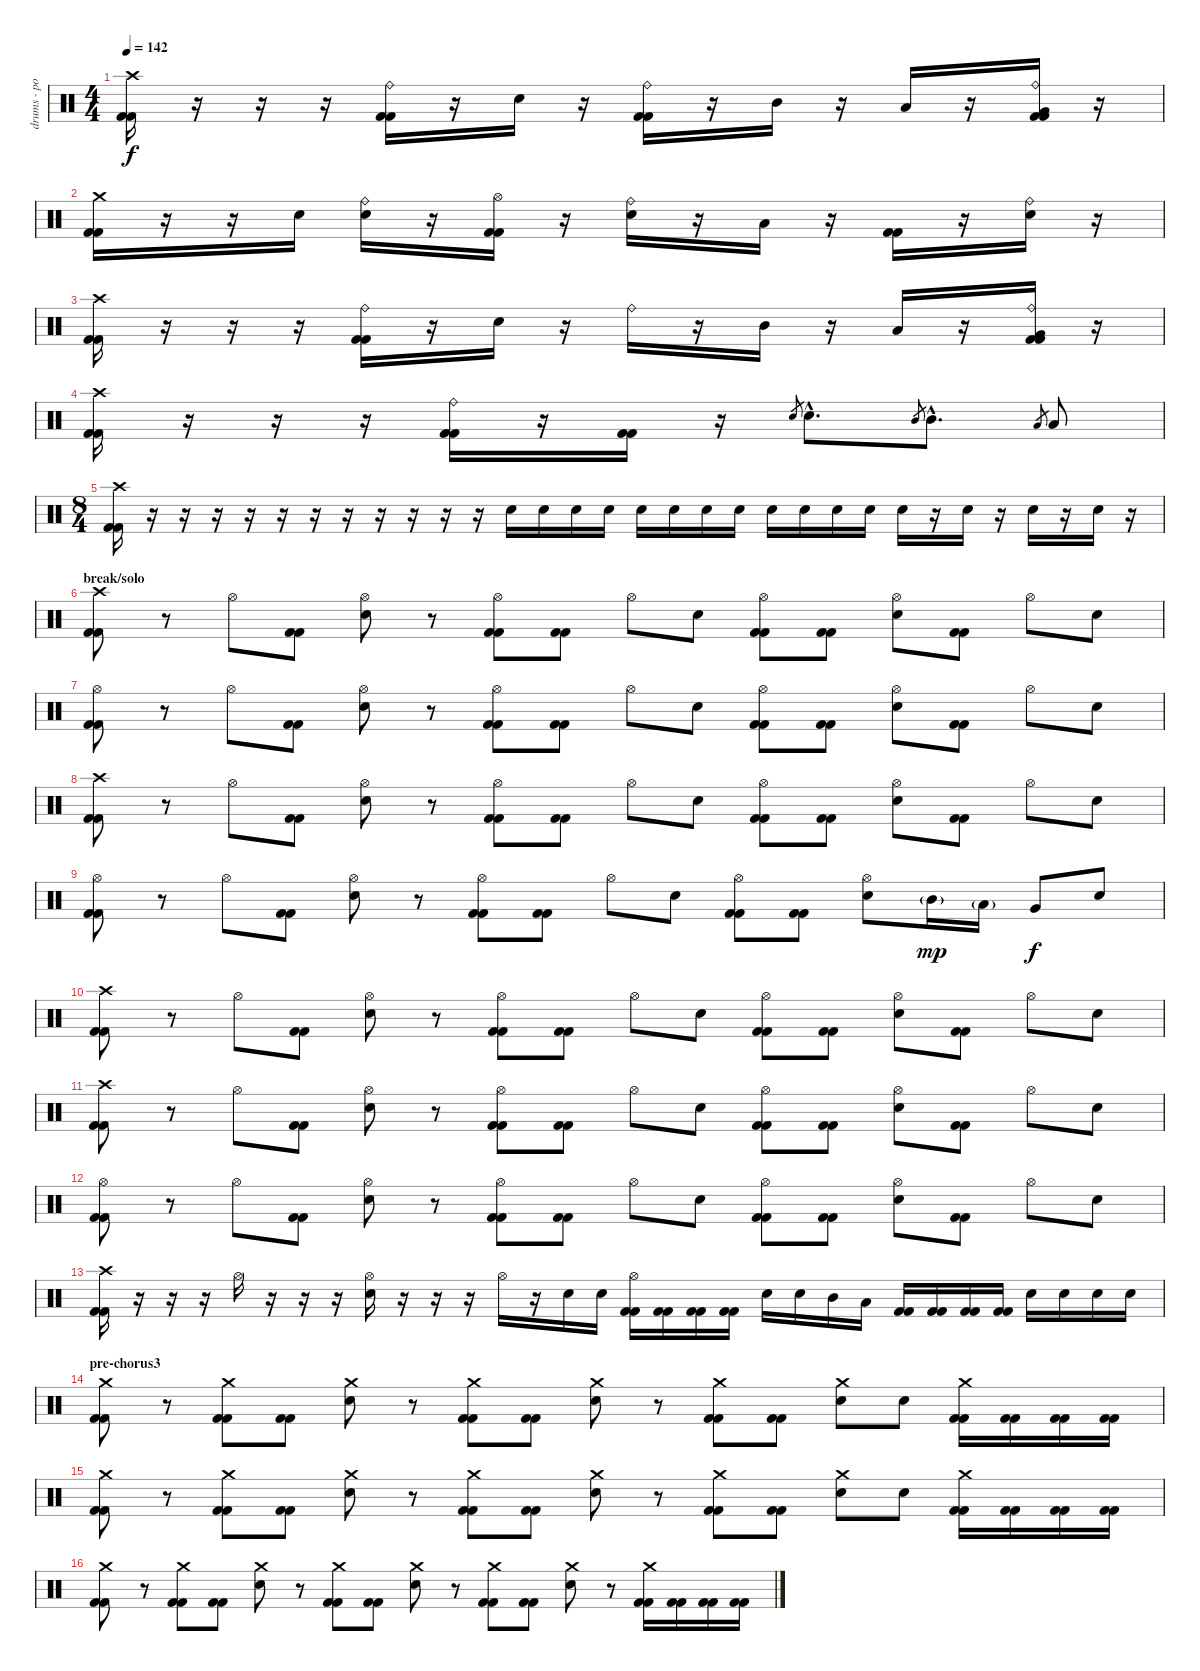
\track ("drums - portnoy" "drums - po") {instrument percussion}
\staff {score}
\articulation defaults
\ts (4 4)
\tempo 142
\clef neutral
\ks c
("Crash high (hit)" "Kick (hit) 2" "Kick (hit) 2").16{dy f} r.16 r.16 r.16 ("Ride (bell)" "Kick (hit) 2" "Kick (hit) 2").16 r.16 "Electric Snare (hit)".16 r.16 ("Ride (bell)" "Kick (hit) 2" "Kick (hit) 2").16 r.16 "Mid Tom (hit)".16 r.16 "Low Tom (hit)".16 r.16 ("Ride (bell)" "Very Low Tom (hit)" "Kick (hit) 2" "Kick (hit) 2").16 r.16 |
("Crash medium (hit)" "Kick (hit) 2" "Kick (hit) 2").16 r.16 r.16 "Electric Snare (hit)".16 ("Ride (bell)" "Electric Snare (hit)").16 r.16 ("Hi-Hat (open)" "Kick (hit) 2" "Kick (hit) 2").16 r.16 ("Ride (bell)" "Electric Snare (hit)").16 r.16 "Low Tom (hit)".16 r.16 ("Kick (hit) 2" "Kick (hit) 2").16 r.16 ("Ride (bell)" "Electric Snare (hit)").16 r.16 |
("Crash high (hit)" "Kick (hit) 2" "Kick (hit) 2").16 r.16 r.16 r.16 ("Ride (bell)" "Kick (hit) 2" "Kick (hit) 2").16 r.16 "Electric Snare (hit)".16 r.16 "Ride (bell)".16 r.16 "Mid Tom (hit)".16 r.16 "Low Tom (hit)".16 r.16 ("Ride (bell)" "Very Low Tom (hit)" "Kick (hit) 2" "Kick (hit) 2").16 r.16 |
("Crash high (hit)" "Kick (hit) 2" "Kick (hit) 2").16 r.16 r.16 r.16 ("Ride (bell)" "Kick (hit) 2" "Kick (hit) 2").16 r.16 ("Kick (hit) 2" "Kick (hit) 2").16 r.16 "Electric Snare (hit)".8{gr} "Electric Snare (hit)"{hac}.8{d} "Mid Tom (hit)".8{gr} "Mid Tom (hit)"{hac}.8{d} "Low Tom (hit)".8{gr} "Low Tom (hit)".8 |
\ts (8 4)
("Crash high (hit)" "Kick (hit) 2" "Kick (hit) 2").16 r.16 r.16 r.16 r.16 r.16 r.16 r.16 r.16 r.16 r.16 r.16{volume 0} "Electric Snare (hit)".16{volume 16} "Electric Snare (hit)".16 "Electric Snare (hit)".16 "Electric Snare (hit)".16 "Electric Snare (hit)".16 "Electric Snare (hit)".16 "Electric Snare (hit)".16 "Electric Snare (hit)".16 "Electric Snare (hit)".16 "Electric Snare (hit)".16 "Electric Snare (hit)".16 "Electric Snare (hit)".16 "Electric Snare (hit)".16 r.16 "Electric Snare (hit)".16 r.16 "Electric Snare (hit)".16 r.16 "Electric Snare (hit)".16 r.16 |
\section ("" "break/solo")
("Crash high (hit)" "Kick (hit) 2" "Kick (hit) 2").8 r.8 "Hi-Hat (open)".8 ("Kick (hit) 2" "Kick (hit) 2").8 ("Hi-Hat (open)" "Electric Snare (hit)").8 r.8 ("Hi-Hat (open)" "Kick (hit) 2" "Kick (hit) 2").8 ("Kick (hit) 2" "Kick (hit) 2").8 "Hi-Hat (open)".8 "Electric Snare (hit)".8 ("Hi-Hat (open)" "Kick (hit) 2" "Kick (hit) 2").8 ("Kick (hit) 2" "Kick (hit) 2").8 ("Hi-Hat (open)" "Electric Snare (hit)").8 ("Kick (hit) 2" "Kick (hit) 2").8 "Hi-Hat (open)".8 "Electric Snare (hit)".8 |
("Hi-Hat (open)" "Kick (hit) 2" "Kick (hit) 2").8 r.8 "Hi-Hat (open)".8 ("Kick (hit) 2" "Kick (hit) 2").8 ("Hi-Hat (open)" "Electric Snare (hit)").8 r.8 ("Hi-Hat (open)" "Kick (hit) 2" "Kick (hit) 2").8 ("Kick (hit) 2" "Kick (hit) 2").8 "Hi-Hat (open)".8 "Electric Snare (hit)".8 ("Hi-Hat (open)" "Kick (hit) 2" "Kick (hit) 2").8 ("Kick (hit) 2" "Kick (hit) 2").8 ("Hi-Hat (open)" "Electric Snare (hit)").8 ("Kick (hit) 2" "Kick (hit) 2").8 "Hi-Hat (open)".8 "Electric Snare (hit)".8 |
("Crash high (hit)" "Kick (hit) 2" "Kick (hit) 2").8 r.8 "Hi-Hat (open)".8 ("Kick (hit) 2" "Kick (hit) 2").8 ("Hi-Hat (open)" "Electric Snare (hit)").8 r.8 ("Hi-Hat (open)" "Kick (hit) 2" "Kick (hit) 2").8 ("Kick (hit) 2" "Kick (hit) 2").8 "Hi-Hat (open)".8 "Electric Snare (hit)".8 ("Hi-Hat (open)" "Kick (hit) 2" "Kick (hit) 2").8 ("Kick (hit) 2" "Kick (hit) 2").8 ("Hi-Hat (open)" "Electric Snare (hit)").8 ("Kick (hit) 2" "Kick (hit) 2").8 "Hi-Hat (open)".8 "Electric Snare (hit)".8 |
("Hi-Hat (open)" "Kick (hit) 2" "Kick (hit) 2").8 r.8 "Hi-Hat (open)".8 ("Kick (hit) 2" "Kick (hit) 2").8 ("Hi-Hat (open)" "Electric Snare (hit)").8 r.8 ("Hi-Hat (open)" "Kick (hit) 2" "Kick (hit) 2").8 ("Kick (hit) 2" "Kick (hit) 2").8 "Hi-Hat (open)".8 "Electric Snare (hit)".8 ("Hi-Hat (open)" "Kick (hit) 2" "Kick (hit) 2").8 ("Kick (hit) 2" "Kick (hit) 2").8 ("Hi-Hat (open)" "Electric Snare (hit)").8 "Mid Tom (hit)"{g}.16{dy mp} "Low Tom (hit)"{g}.16 "Very Low Tom (hit)".8{dy f} "Electric Snare (hit)".8 |
("Crash high (hit)" "Kick (hit) 2" "Kick (hit) 2").8 r.8 "Hi-Hat (open)".8 ("Kick (hit) 2" "Kick (hit) 2").8 ("Hi-Hat (open)" "Electric Snare (hit)").8 r.8 ("Hi-Hat (open)" "Kick (hit) 2" "Kick (hit) 2").8 ("Kick (hit) 2" "Kick (hit) 2").8 "Hi-Hat (open)".8 "Electric Snare (hit)".8 ("Hi-Hat (open)" "Kick (hit) 2" "Kick (hit) 2").8 ("Kick (hit) 2" "Kick (hit) 2").8 ("Hi-Hat (open)" "Electric Snare (hit)").8 ("Kick (hit) 2" "Kick (hit) 2").8 "Hi-Hat (open)".8 "Electric Snare (hit)".8 |
("Crash high (hit)" "Kick (hit) 2" "Kick (hit) 2").8 r.8 "Hi-Hat (open)".8 ("Kick (hit) 2" "Kick (hit) 2").8 ("Hi-Hat (open)" "Electric Snare (hit)").8 r.8 ("Hi-Hat (open)" "Kick (hit) 2" "Kick (hit) 2").8 ("Kick (hit) 2" "Kick (hit) 2").8 "Hi-Hat (open)".8 "Electric Snare (hit)".8 ("Hi-Hat (open)" "Kick (hit) 2" "Kick (hit) 2").8 ("Kick (hit) 2" "Kick (hit) 2").8 ("Hi-Hat (open)" "Electric Snare (hit)").8 ("Kick (hit) 2" "Kick (hit) 2").8 "Hi-Hat (open)".8 "Electric Snare (hit)".8 |
("Hi-Hat (open)" "Kick (hit) 2" "Kick (hit) 2").8 r.8 "Hi-Hat (open)".8 ("Kick (hit) 2" "Kick (hit) 2").8 ("Hi-Hat (open)" "Electric Snare (hit)").8 r.8 ("Hi-Hat (open)" "Kick (hit) 2" "Kick (hit) 2").8 ("Kick (hit) 2" "Kick (hit) 2").8 "Hi-Hat (open)".8 "Electric Snare (hit)".8 ("Hi-Hat (open)" "Kick (hit) 2" "Kick (hit) 2").8 ("Kick (hit) 2" "Kick (hit) 2").8 ("Hi-Hat (open)" "Electric Snare (hit)").8 ("Kick (hit) 2" "Kick (hit) 2").8 "Hi-Hat (open)".8 "Electric Snare (hit)".8 |
("Crash high (hit)" "Kick (hit) 2" "Kick (hit) 2").16 r.16 r.16 r.16 "Hi-Hat (open)".16 r.16 r.16 r.16 ("Hi-Hat (open)" "Electric Snare (hit)").16 r.16 r.16 r.16 "Hi-Hat (open)".16 r.16 "Electric Snare (hit)".16 "Electric Snare (hit)".16 ("Hi-Hat (open)" "Kick (hit) 2" "Kick (hit) 2").16 ("Kick (hit) 2" "Kick (hit) 2").16 ("Kick (hit) 2" "Kick (hit) 2").16 ("Kick (hit) 2" "Kick (hit) 2").16 "Electric Snare (hit)".16 "Electric Snare (hit)".16 "Mid Tom (hit)".16 "Low Tom (hit)".16 ("Kick (hit) 2" "Kick (hit) 2").16 ("Kick (hit) 2" "Kick (hit) 2").16 ("Kick (hit) 2" "Kick (hit) 2").16 ("Kick (hit) 2" "Kick (hit) 2").16 "Electric Snare (hit)".16 "Electric Snare (hit)".16 "Electric Snare (hit)".16 "Electric Snare (hit)".16 |
\section ("" "pre-chorus3")
("Crash medium (hit)" "Kick (hit) 2" "Kick (hit) 2").8 r.8 ("Crash medium (hit)" "Kick (hit) 2" "Kick (hit) 2").8 ("Kick (hit) 2" "Kick (hit) 2").8 ("Crash medium (hit)" "Electric Snare (hit)").8 r.8 ("Crash medium (hit)" "Kick (hit) 2" "Kick (hit) 2").8 ("Kick (hit) 2" "Kick (hit) 2").8 ("Crash medium (hit)" "Electric Snare (hit)").8 r.8 ("Crash medium (hit)" "Kick (hit) 2" "Kick (hit) 2").8 ("Kick (hit) 2" "Kick (hit) 2").8 ("Crash medium (hit)" "Electric Snare (hit)").8 "Electric Snare (hit)".8 ("Crash medium (hit)" "Kick (hit) 2" "Kick (hit) 2").16 ("Kick (hit) 2" "Kick (hit) 2").16 ("Kick (hit) 2" "Kick (hit) 2").16 ("Kick (hit) 2" "Kick (hit) 2").16 |
("Crash medium (hit)" "Kick (hit) 2" "Kick (hit) 2").8 r.8 ("Crash medium (hit)" "Kick (hit) 2" "Kick (hit) 2").8 ("Kick (hit) 2" "Kick (hit) 2").8 ("Crash medium (hit)" "Electric Snare (hit)").8 r.8 ("Crash medium (hit)" "Kick (hit) 2" "Kick (hit) 2").8 ("Kick (hit) 2" "Kick (hit) 2").8 ("Crash medium (hit)" "Electric Snare (hit)").8 r.8 ("Crash medium (hit)" "Kick (hit) 2" "Kick (hit) 2").8 ("Kick (hit) 2" "Kick (hit) 2").8 ("Crash medium (hit)" "Electric Snare (hit)").8 "Electric Snare (hit)".8 ("Crash medium (hit)" "Kick (hit) 2" "Kick (hit) 2").16 ("Kick (hit) 2" "Kick (hit) 2").16 ("Kick (hit) 2" "Kick (hit) 2").16 ("Kick (hit) 2" "Kick (hit) 2").16 |
("Crash medium (hit)" "Kick (hit) 2" "Kick (hit) 2").8 r.8 ("Crash medium (hit)" "Kick (hit) 2" "Kick (hit) 2").8 ("Kick (hit) 2" "Kick (hit) 2").8 ("Crash medium (hit)" "Electric Snare (hit)").8 r.8 ("Crash medium (hit)" "Kick (hit) 2" "Kick (hit) 2").8 ("Kick (hit) 2" "Kick (hit) 2").8 ("Crash medium (hit)" "Electric Snare (hit)").8 r.8 ("Crash medium (hit)" "Kick (hit) 2" "Kick (hit) 2").8 ("Kick (hit) 2" "Kick (hit) 2").8 ("Crash medium (hit)" "Electric Snare (hit)").8 r.8 ("Crash medium (hit)" "Kick (hit) 2" "Kick (hit) 2").16 ("Kick (hit) 2" "Kick (hit) 2").16 ("Kick (hit) 2" "Kick (hit) 2").16 ("Kick (hit) 2" "Kick (hit) 2").16
